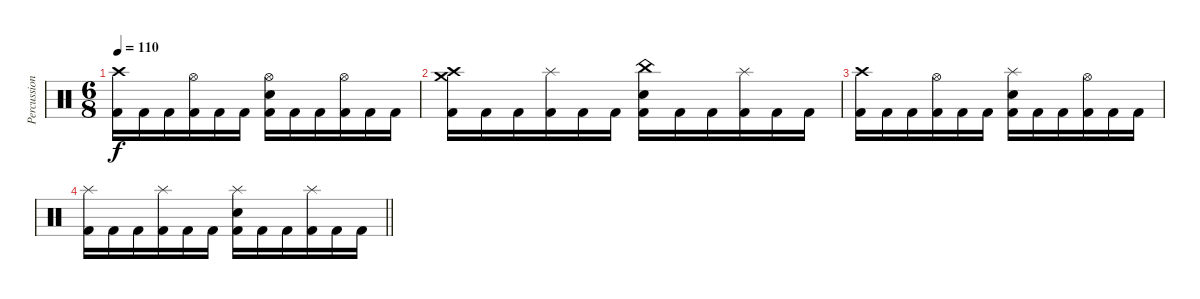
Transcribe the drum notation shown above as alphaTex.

\track ("Percussion" "Percussion") {instrument percussion}
\staff {score}
\articulation defaults
\ts (6 8)
\tempo 110
\clef neutral
\ks c
("Crash high (hit)" "Kick (hit) 2").16{dy f} "Kick (hit) 2".16 "Kick (hit) 2".16 ("Hi-Hat (open)" "Kick (hit) 2").16 "Kick (hit) 2".16 "Kick (hit) 2".16 ("Hi-Hat (open)" "Electric Snare (hit)" "Kick (hit) 2").16 "Kick (hit) 2".16 "Kick (hit) 2".16 ("Hi-Hat (open)" "Kick (hit) 2").16 "Kick (hit) 2".16 "Kick (hit) 2".16 |
("Crash high (hit)" "Crash medium (hit)" "Kick (hit) 2").16 "Kick (hit) 2".16 "Kick (hit) 2".16 ("Splash (hit)" "Kick (hit) 2").16 "Kick (hit) 2".16 "Kick (hit) 2".16 ("China (hit)" "Electric Snare (hit)" "Kick (hit) 2").16 "Kick (hit) 2".16 "Kick (hit) 2".16 ("Splash (hit)" "Kick (hit) 2").16 "Kick (hit) 2".16 "Kick (hit) 2".16 |
("Crash high (hit)" "Kick (hit) 2").16 "Kick (hit) 2".16 "Kick (hit) 2".16 ("Hi-Hat (open)" "Kick (hit) 2").16 "Kick (hit) 2".16 "Kick (hit) 2".16 ("Splash (hit)" "Electric Snare (hit)" "Kick (hit) 2").16 "Kick (hit) 2".16 "Kick (hit) 2".16 ("Hi-Hat (open)" "Kick (hit) 2").16 "Kick (hit) 2".16 "Kick (hit) 2".16 |
\barLineRight lightlight
("Splash (hit)" "Kick (hit) 2").16 "Kick (hit) 2".16 "Kick (hit) 2".16 ("Splash (hit)" "Kick (hit) 2").16 "Kick (hit) 2".16 "Kick (hit) 2".16 ("Splash (hit)" "Electric Snare (hit)" "Kick (hit) 2").16 "Kick (hit) 2".16 "Kick (hit) 2".16 ("Splash (hit)" "Kick (hit) 2").16 "Kick (hit) 2".16 "Kick (hit) 2".16
